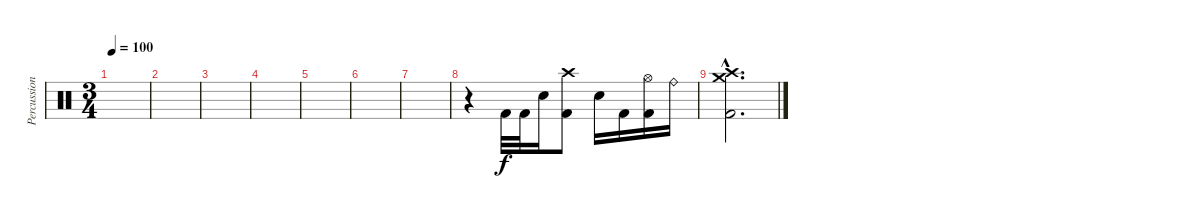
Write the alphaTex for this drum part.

\track ("Percussion" "Percussion") {instrument percussion}
\staff {score}
\articulation defaults
\ts (3 4)
\tempo 100
\clef neutral
\ks c
|
|
|
|
|
|
|
r.4 "Kick (hit) 2".32 "Kick (hit) 2".32 "Electric Snare (hit)".16 ("Crash high (hit)" "Kick (hit) 2").8 "Electric Snare (hit)".16 "Kick (hit) 2".16 ("Hi-Hat (open)" "Kick (hit) 2").16 "Ride (bell)".16 |
("Crash high (hit)"{hac} "Crash medium (hit)"{hac} "Kick (hit) 2"{hac}).2{d}
